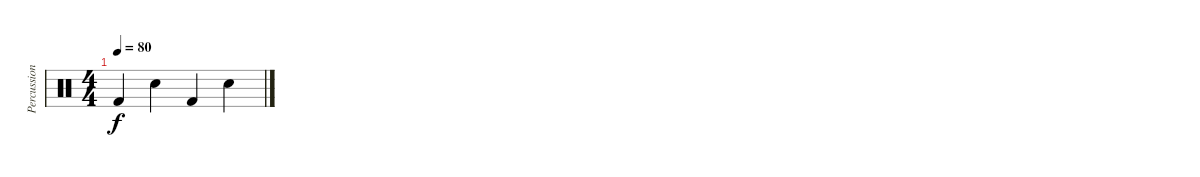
\track ("Percussion" "Percussion") {instrument percussion}
\staff {score}
\articulation defaults
\ts (4 4)
\tempo 80
\clef neutral
\ks c "Kick (hit) 2".4{dy f} "Snare (hit) 2".4 "Kick (hit) 2".4 "Snare (hit) 2".4
